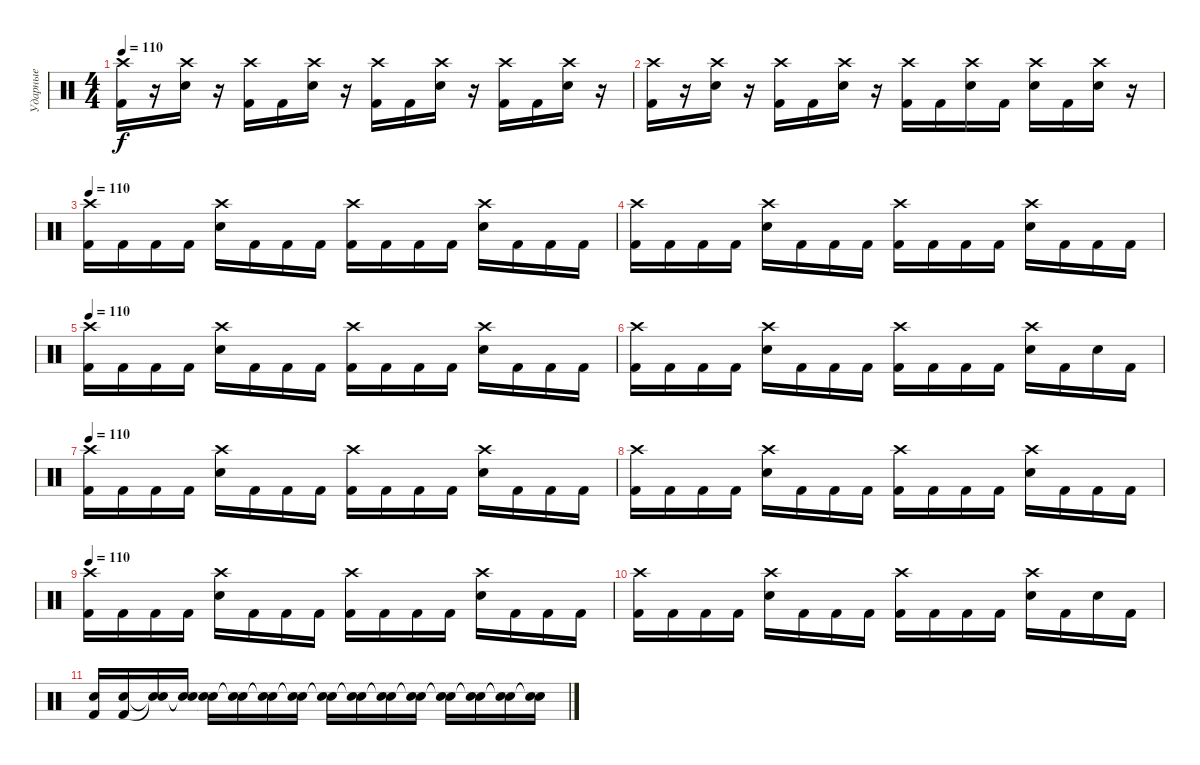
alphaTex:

\track ("Ударные" "Ударные") {instrument percussion}
\staff {score}
\articulation defaults
\ts (4 4)
\tempo 110
\clef neutral
\ks c
("Crash high (hit)" "Kick (hit) 2").16{dy f} r.16 ("Crash high (hit)" "Snare (hit) 2").16 r.16 ("Crash high (hit)" "Kick (hit) 2").16 "Kick (hit) 2".16 ("Crash high (hit)" "Snare (hit) 2").16 r.16 ("Crash high (hit)" "Kick (hit) 2").16 "Kick (hit) 2".16 ("Crash high (hit)" "Snare (hit) 2").16 r.16 ("Crash high (hit)" "Kick (hit) 2").16 "Kick (hit) 2".16 ("Crash high (hit)" "Snare (hit) 2").16 r.16 |
("Crash high (hit)" "Kick (hit) 2").16 r.16 ("Crash high (hit)" "Snare (hit) 2").16 r.16 ("Crash high (hit)" "Kick (hit) 2").16 "Kick (hit) 2".16 ("Crash high (hit)" "Snare (hit) 2").16 r.16 ("Crash high (hit)" "Kick (hit) 2").16 "Kick (hit) 2".16 ("Crash high (hit)" "Snare (hit) 2").16 "Kick (hit) 2".16 ("Crash high (hit)" "Snare (hit) 2").16 "Kick (hit) 2".16 ("Crash high (hit)" "Snare (hit) 2").16 r.16 |
\tempo 110
("Crash high (hit)" "Kick (hit) 2").16 "Kick (hit) 2".16 "Kick (hit) 2".16 "Kick (hit) 2".16 ("Crash high (hit)" "Snare (hit) 2").16 "Kick (hit) 2".16 "Kick (hit) 2".16 "Kick (hit) 2".16 ("Crash high (hit)" "Kick (hit) 2").16 "Kick (hit) 2".16 "Kick (hit) 2".16 "Kick (hit) 2".16 ("Crash high (hit)" "Snare (hit) 2").16 "Kick (hit) 2".16 "Kick (hit) 2".16 "Kick (hit) 2".16 |
("Crash high (hit)" "Kick (hit) 2").16 "Kick (hit) 2".16 "Kick (hit) 2".16 "Kick (hit) 2".16 ("Crash high (hit)" "Snare (hit) 2").16 "Kick (hit) 2".16 "Kick (hit) 2".16 "Kick (hit) 2".16 ("Crash high (hit)" "Kick (hit) 2").16 "Kick (hit) 2".16 "Kick (hit) 2".16 "Kick (hit) 2".16 ("Crash high (hit)" "Snare (hit) 2").16 "Kick (hit) 2".16 "Kick (hit) 2".16 "Kick (hit) 2".16 |
\tempo 110
("Crash high (hit)" "Kick (hit) 2").16 "Kick (hit) 2".16 "Kick (hit) 2".16 "Kick (hit) 2".16 ("Crash high (hit)" "Snare (hit) 2").16 "Kick (hit) 2".16 "Kick (hit) 2".16 "Kick (hit) 2".16 ("Crash high (hit)" "Kick (hit) 2").16 "Kick (hit) 2".16 "Kick (hit) 2".16 "Kick (hit) 2".16 ("Crash high (hit)" "Snare (hit) 2").16 "Kick (hit) 2".16 "Kick (hit) 2".16 "Kick (hit) 2".16 |
("Crash high (hit)" "Kick (hit) 2").16 "Kick (hit) 2".16 "Kick (hit) 2".16 "Kick (hit) 2".16 ("Crash high (hit)" "Snare (hit) 2").16 "Kick (hit) 2".16 "Kick (hit) 2".16 "Kick (hit) 2".16 ("Crash high (hit)" "Kick (hit) 2").16 "Kick (hit) 2".16 "Kick (hit) 2".16 "Kick (hit) 2".16 ("Crash high (hit)" "Snare (hit) 2").16 "Kick (hit) 2".16 "Snare (hit) 2".16 "Kick (hit) 2".16 |
\tempo 110
("Crash high (hit)" "Kick (hit) 2").16 "Kick (hit) 2".16 "Kick (hit) 2".16 "Kick (hit) 2".16 ("Crash high (hit)" "Snare (hit) 2").16 "Kick (hit) 2".16 "Kick (hit) 2".16 "Kick (hit) 2".16 ("Crash high (hit)" "Kick (hit) 2").16 "Kick (hit) 2".16 "Kick (hit) 2".16 "Kick (hit) 2".16 ("Crash high (hit)" "Snare (hit) 2").16 "Kick (hit) 2".16 "Kick (hit) 2".16 "Kick (hit) 2".16 |
("Crash high (hit)" "Kick (hit) 2").16 "Kick (hit) 2".16 "Kick (hit) 2".16 "Kick (hit) 2".16 ("Crash high (hit)" "Snare (hit) 2").16 "Kick (hit) 2".16 "Kick (hit) 2".16 "Kick (hit) 2".16 ("Crash high (hit)" "Kick (hit) 2").16 "Kick (hit) 2".16 "Kick (hit) 2".16 "Kick (hit) 2".16 ("Crash high (hit)" "Snare (hit) 2").16 "Kick (hit) 2".16 "Kick (hit) 2".16 "Kick (hit) 2".16 |
\tempo 110
("Crash high (hit)" "Kick (hit) 2").16 "Kick (hit) 2".16 "Kick (hit) 2".16 "Kick (hit) 2".16 ("Crash high (hit)" "Snare (hit) 2").16 "Kick (hit) 2".16 "Kick (hit) 2".16 "Kick (hit) 2".16 ("Crash high (hit)" "Kick (hit) 2").16 "Kick (hit) 2".16 "Kick (hit) 2".16 "Kick (hit) 2".16 ("Crash high (hit)" "Snare (hit) 2").16 "Kick (hit) 2".16 "Kick (hit) 2".16 "Kick (hit) 2".16 |
("Crash high (hit)" "Kick (hit) 2").16 "Kick (hit) 2".16 "Kick (hit) 2".16 "Kick (hit) 2".16 ("Crash high (hit)" "Snare (hit) 2").16 "Kick (hit) 2".16 "Kick (hit) 2".16 "Kick (hit) 2".16 ("Crash high (hit)" "Kick (hit) 2").16 "Kick (hit) 2".16 "Kick (hit) 2".16 "Kick (hit) 2".16 ("Crash high (hit)" "Snare (hit) 2").16 "Kick (hit) 2".16 "Snare (hit) 2".16 "Kick (hit) 2".16 |
("Snare (hit) 2" "Kick (hit) 2").16 ("Snare (hit) 2" "Kick (hit) 2").16 ("Snare (hit)"{t} "Snare (hit)"{t}).16 ("Snare (hit)"{t} "Snare (hit)"{t}).16 ("Snare (hit)"{t} "Snare (hit)"{t}).16 ("Snare (hit)"{t} "Snare (hit)"{t}).16 ("Snare (hit)"{t} "Snare (hit)"{t}).16 ("Snare (hit)"{t} "Snare (hit)"{t}).16 ("Snare (hit)"{t} "Snare (hit)"{t}).16 ("Snare (hit)"{t} "Snare (hit)"{t}).16 ("Snare (hit)"{t} "Snare (hit)"{t}).16 ("Snare (hit)"{t} "Snare (hit)"{t}).16 ("Snare (hit)"{t} "Snare (hit)"{t}).16 ("Snare (hit)"{t} "Snare (hit)"{t}).16 ("Snare (hit)"{t} "Snare (hit)"{t}).16 ("Snare (hit)"{t} "Snare (hit)"{t}).16
